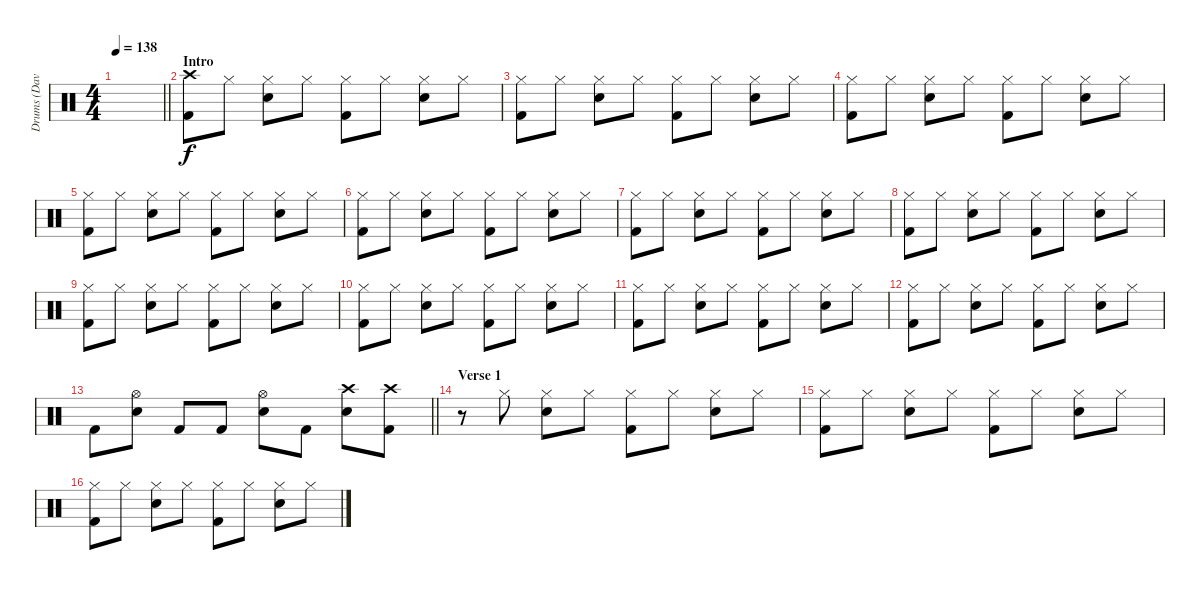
\track ("Drums (Dave Holland)" "Drums (Dav") {instrument percussion}
\staff {score}
\articulation defaults
\ts (4 4)
\tempo 138
\clef neutral
\barLineRight lightlight
\ks c
|
\section ("" "Intro")
("Crash high (hit)" "Kick (hit) 2").8 "Hi-Hat (closed)".8 ("Hi-Hat (closed)" "Snare (hit) 2").8 "Hi-Hat (closed)".8 ("Hi-Hat (closed)" "Kick (hit) 2").8 "Hi-Hat (closed)".8 ("Hi-Hat (closed)" "Snare (hit) 2").8 "Hi-Hat (closed)".8 |
("Hi-Hat (closed)" "Kick (hit) 2").8 "Hi-Hat (closed)".8 ("Hi-Hat (closed)" "Snare (hit) 2").8 "Hi-Hat (closed)".8 ("Hi-Hat (closed)" "Kick (hit) 2").8 "Hi-Hat (closed)".8 ("Hi-Hat (closed)" "Snare (hit) 2").8 "Hi-Hat (closed)".8 |
("Hi-Hat (closed)" "Kick (hit) 2").8 "Hi-Hat (closed)".8 ("Hi-Hat (closed)" "Snare (hit) 2").8 "Hi-Hat (closed)".8 ("Hi-Hat (closed)" "Kick (hit) 2").8 "Hi-Hat (closed)".8 ("Hi-Hat (closed)" "Snare (hit) 2").8 "Hi-Hat (closed)".8 |
("Hi-Hat (closed)" "Kick (hit) 2").8 "Hi-Hat (closed)".8 ("Hi-Hat (closed)" "Snare (hit) 2").8 "Hi-Hat (closed)".8 ("Hi-Hat (closed)" "Kick (hit) 2").8 "Hi-Hat (closed)".8 ("Hi-Hat (closed)" "Snare (hit) 2").8 "Hi-Hat (closed)".8 |
("Hi-Hat (closed)" "Kick (hit) 2").8 "Hi-Hat (closed)".8 ("Hi-Hat (closed)" "Snare (hit) 2").8 "Hi-Hat (closed)".8 ("Hi-Hat (closed)" "Kick (hit) 2").8 "Hi-Hat (closed)".8 ("Hi-Hat (closed)" "Snare (hit) 2").8 "Hi-Hat (closed)".8 |
("Hi-Hat (closed)" "Kick (hit) 2").8 "Hi-Hat (closed)".8 ("Hi-Hat (closed)" "Snare (hit) 2").8 "Hi-Hat (closed)".8 ("Hi-Hat (closed)" "Kick (hit) 2").8 "Hi-Hat (closed)".8 ("Hi-Hat (closed)" "Snare (hit) 2").8 "Hi-Hat (closed)".8 |
("Hi-Hat (closed)" "Kick (hit) 2").8 "Hi-Hat (closed)".8 ("Hi-Hat (closed)" "Snare (hit) 2").8 "Hi-Hat (closed)".8 ("Hi-Hat (closed)" "Kick (hit) 2").8 "Hi-Hat (closed)".8 ("Hi-Hat (closed)" "Snare (hit) 2").8 "Hi-Hat (closed)".8 |
("Hi-Hat (closed)" "Kick (hit) 2").8 "Hi-Hat (closed)".8 ("Hi-Hat (closed)" "Snare (hit) 2").8 "Hi-Hat (closed)".8 ("Hi-Hat (closed)" "Kick (hit) 2").8 "Hi-Hat (closed)".8 ("Hi-Hat (closed)" "Snare (hit) 2").8 "Hi-Hat (closed)".8 |
("Hi-Hat (closed)" "Kick (hit) 2").8 "Hi-Hat (closed)".8 ("Hi-Hat (closed)" "Snare (hit) 2").8 "Hi-Hat (closed)".8 ("Hi-Hat (closed)" "Kick (hit) 2").8 "Hi-Hat (closed)".8 ("Hi-Hat (closed)" "Snare (hit) 2").8 "Hi-Hat (closed)".8 |
("Hi-Hat (closed)" "Kick (hit) 2").8 "Hi-Hat (closed)".8 ("Hi-Hat (closed)" "Snare (hit) 2").8 "Hi-Hat (closed)".8 ("Hi-Hat (closed)" "Kick (hit) 2").8 "Hi-Hat (closed)".8 ("Hi-Hat (closed)" "Snare (hit) 2").8 "Hi-Hat (closed)".8 |
("Hi-Hat (closed)" "Kick (hit) 2").8 "Hi-Hat (closed)".8 ("Hi-Hat (closed)" "Snare (hit) 2").8 "Hi-Hat (closed)".8 ("Hi-Hat (closed)" "Kick (hit) 2").8 "Hi-Hat (closed)".8 ("Hi-Hat (closed)" "Snare (hit) 2").8 "Hi-Hat (closed)".8 |
\barLineRight lightlight "Kick (hit) 2".8
("Hi-Hat (open)" "Snare (hit) 2").8 "Kick (hit) 2".8 "Kick (hit) 2".8 ("Hi-Hat (open)" "Snare (hit) 2").8 "Kick (hit) 2".8 ("Crash high (hit)" "Snare (hit) 2").8 ("Crash high (hit)" "Kick (hit) 2").8 |
\section ("" "Verse 1")
r.8 "Hi-Hat (closed)".8 ("Hi-Hat (closed)" "Snare (hit) 2").8 "Hi-Hat (closed)".8 ("Hi-Hat (closed)" "Kick (hit) 2").8 "Hi-Hat (closed)".8 ("Hi-Hat (closed)" "Snare (hit) 2").8 "Hi-Hat (closed)".8 |
("Hi-Hat (closed)" "Kick (hit) 2").8 "Hi-Hat (closed)".8 ("Hi-Hat (closed)" "Snare (hit) 2").8 "Hi-Hat (closed)".8 ("Hi-Hat (closed)" "Kick (hit) 2").8 "Hi-Hat (closed)".8 ("Hi-Hat (closed)" "Snare (hit) 2").8 "Hi-Hat (closed)".8 |
("Hi-Hat (closed)" "Kick (hit) 2").8 "Hi-Hat (closed)".8 ("Hi-Hat (closed)" "Snare (hit) 2").8 "Hi-Hat (closed)".8 ("Hi-Hat (closed)" "Kick (hit) 2").8 "Hi-Hat (closed)".8 ("Hi-Hat (closed)" "Snare (hit) 2").8 "Hi-Hat (closed)".8
